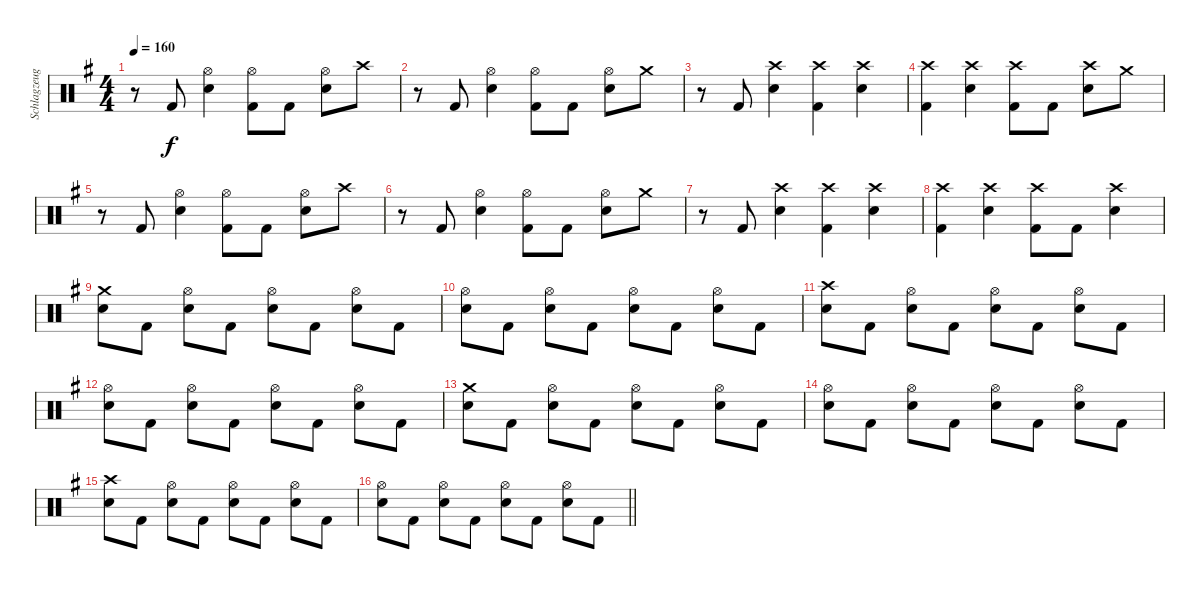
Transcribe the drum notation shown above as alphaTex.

\track ("Schlagzeug" "Schlagzeug") {instrument percussion}
\staff {score}
\articulation defaults
\ts (4 4)
\tempo 160
\clef neutral
\ks g
r.8{dy f} "Kick (hit) 2".8 ("Hi-Hat (open)" "Snare (hit) 2").4 ("Hi-Hat (open)" "Kick (hit) 2").8 "Kick (hit) 2".8 ("Hi-Hat (open)" "Snare (hit) 2").8 "Crash high (hit)".8 |
r.8 "Kick (hit) 2".8 ("Hi-Hat (open)" "Snare (hit) 2").4 ("Hi-Hat (open)" "Kick (hit) 2").8 "Kick (hit) 2".8 ("Hi-Hat (open)" "Snare (hit) 2").8 "Crash medium (hit)".8 |
r.8 "Kick (hit) 2".8 ("Crash high (hit)" "Snare (hit) 2").4 ("Crash high (hit)" "Kick (hit) 2").4 ("Crash high (hit)" "Snare (hit) 2").4 |
("Crash high (hit)" "Kick (hit) 2").4 ("Crash high (hit)" "Snare (hit) 2").4 ("Crash high (hit)" "Kick (hit) 2").8 "Kick (hit) 2".8 ("Crash high (hit)" "Snare (hit) 2").8 "Crash medium (hit)".8 |
r.8 "Kick (hit) 2".8 ("Hi-Hat (open)" "Snare (hit) 2").4 ("Hi-Hat (open)" "Kick (hit) 2").8 "Kick (hit) 2".8 ("Hi-Hat (open)" "Snare (hit) 2").8 "Crash high (hit)".8 |
r.8 "Kick (hit) 2".8 ("Hi-Hat (open)" "Snare (hit) 2").4 ("Hi-Hat (open)" "Kick (hit) 2").8 "Kick (hit) 2".8 ("Hi-Hat (open)" "Snare (hit) 2").8 "Crash medium (hit)".8 |
r.8 "Kick (hit) 2".8 ("Crash high (hit)" "Snare (hit) 2").4 ("Crash high (hit)" "Kick (hit) 2").4 ("Crash high (hit)" "Snare (hit) 2").4 |
("Crash high (hit)" "Kick (hit) 2").4 ("Crash high (hit)" "Snare (hit) 2").4 ("Crash high (hit)" "Kick (hit) 2").8 "Kick (hit) 2".8 ("Crash high (hit)" "Snare (hit) 2").4 |
("Crash medium (hit)" "Snare (hit) 2").8 "Kick (hit) 2".8 ("Hi-Hat (open)" "Snare (hit) 2").8 "Kick (hit) 2".8 ("Hi-Hat (open)" "Snare (hit) 2").8 "Kick (hit) 2".8 ("Hi-Hat (open)" "Snare (hit) 2").8 "Kick (hit) 2".8 |
("Hi-Hat (open)" "Snare (hit) 2").8 "Kick (hit) 2".8 ("Hi-Hat (open)" "Snare (hit) 2").8 "Kick (hit) 2".8 ("Hi-Hat (open)" "Snare (hit) 2").8 "Kick (hit) 2".8 ("Hi-Hat (open)" "Snare (hit) 2").8 "Kick (hit) 2".8 |
("Crash high (hit)" "Snare (hit) 2").8 "Kick (hit) 2".8 ("Hi-Hat (open)" "Snare (hit) 2").8 "Kick (hit) 2".8 ("Hi-Hat (open)" "Snare (hit) 2").8 "Kick (hit) 2".8 ("Hi-Hat (open)" "Snare (hit) 2").8 "Kick (hit) 2".8 |
("Hi-Hat (open)" "Snare (hit) 2").8 "Kick (hit) 2".8 ("Hi-Hat (open)" "Snare (hit) 2").8 "Kick (hit) 2".8 ("Hi-Hat (open)" "Snare (hit) 2").8 "Kick (hit) 2".8 ("Hi-Hat (open)" "Snare (hit) 2").8 "Kick (hit) 2".8 |
("Crash medium (hit)" "Snare (hit) 2").8 "Kick (hit) 2".8 ("Hi-Hat (open)" "Snare (hit) 2").8 "Kick (hit) 2".8 ("Hi-Hat (open)" "Snare (hit) 2").8 "Kick (hit) 2".8 ("Hi-Hat (open)" "Snare (hit) 2").8 "Kick (hit) 2".8 |
("Hi-Hat (open)" "Snare (hit) 2").8 "Kick (hit) 2".8 ("Hi-Hat (open)" "Snare (hit) 2").8 "Kick (hit) 2".8 ("Hi-Hat (open)" "Snare (hit) 2").8 "Kick (hit) 2".8 ("Hi-Hat (open)" "Snare (hit) 2").8 "Kick (hit) 2".8 |
("Crash high (hit)" "Snare (hit) 2").8 "Kick (hit) 2".8 ("Hi-Hat (open)" "Snare (hit) 2").8 "Kick (hit) 2".8 ("Hi-Hat (open)" "Snare (hit) 2").8 "Kick (hit) 2".8 ("Hi-Hat (open)" "Snare (hit) 2").8 "Kick (hit) 2".8 |
\barLineRight lightlight
("Hi-Hat (open)" "Snare (hit) 2").8 "Kick (hit) 2".8 ("Hi-Hat (open)" "Snare (hit) 2").8 "Kick (hit) 2".8 ("Hi-Hat (open)" "Snare (hit) 2").8 "Kick (hit) 2".8 ("Hi-Hat (open)" "Snare (hit) 2").8 "Kick (hit) 2".8
